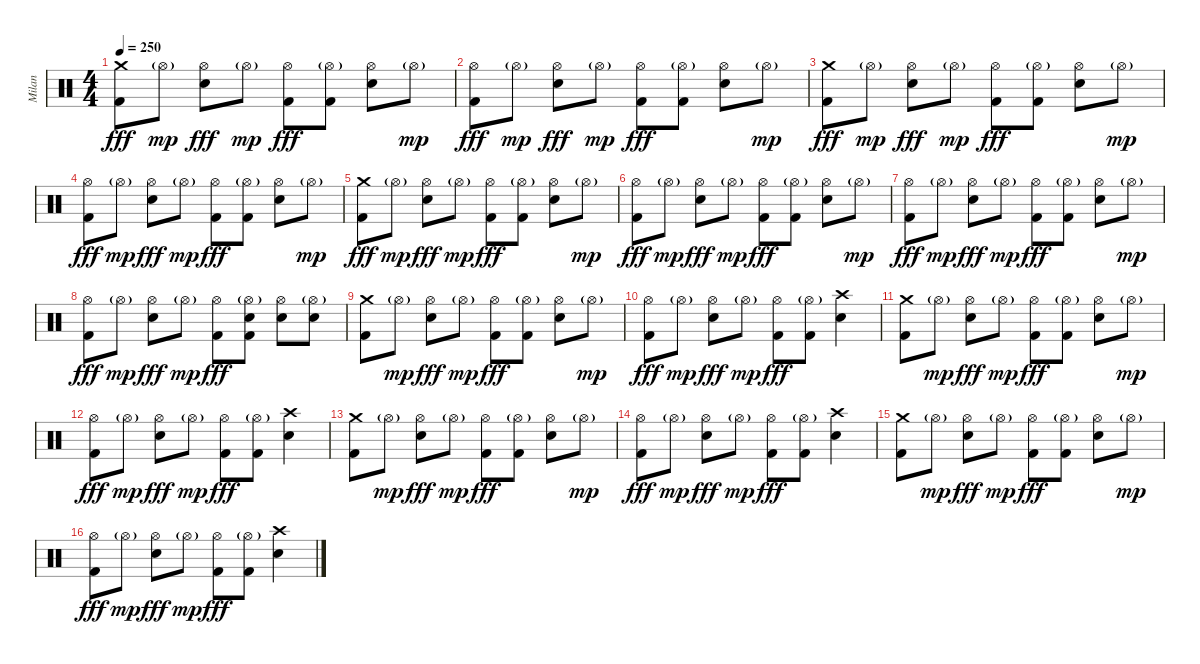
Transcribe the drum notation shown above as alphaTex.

\track ("Milan" "Milan") {instrument percussion}
\staff {score}
\articulation defaults
\ts (4 4)
\tempo 250
\clef neutral
\ks c
("Crash medium (hit)" "Kick (hit) 2").8{dy fff} "Hi-Hat (open)"{g}.8{dy mp} ("Hi-Hat (open)" "Snare (hit) 2").8{dy fff} "Hi-Hat (open)"{g}.8{dy mp} ("Hi-Hat (open)" "Kick (hit) 2").8{dy fff} ("Hi-Hat (open)"{g} "Kick (hit) 2").8 ("Hi-Hat (open)" "Snare (hit) 2").8 "Hi-Hat (open)"{g}.8{dy mp} |
("Hi-Hat (open)" "Kick (hit) 2").8{dy fff} "Hi-Hat (open)"{g}.8{dy mp} ("Hi-Hat (open)" "Snare (hit) 2").8{dy fff} "Hi-Hat (open)"{g}.8{dy mp} ("Hi-Hat (open)" "Kick (hit) 2").8{dy fff} ("Hi-Hat (open)"{g} "Kick (hit) 2").8 ("Hi-Hat (open)" "Snare (hit) 2").8 "Hi-Hat (open)"{g}.8{dy mp} |
("Crash medium (hit)" "Kick (hit) 2").8{dy fff} "Hi-Hat (open)"{g}.8{dy mp} ("Hi-Hat (open)" "Snare (hit) 2").8{dy fff} "Hi-Hat (open)"{g}.8{dy mp} ("Hi-Hat (open)" "Kick (hit) 2").8{dy fff} ("Hi-Hat (open)"{g} "Kick (hit) 2").8 ("Hi-Hat (open)" "Snare (hit) 2").8 "Hi-Hat (open)"{g}.8{dy mp} |
("Hi-Hat (open)" "Kick (hit) 2").8{dy fff} "Hi-Hat (open)"{g}.8{dy mp} ("Hi-Hat (open)" "Snare (hit) 2").8{dy fff} "Hi-Hat (open)"{g}.8{dy mp} ("Hi-Hat (open)" "Kick (hit) 2").8{dy fff} ("Hi-Hat (open)"{g} "Kick (hit) 2").8 ("Hi-Hat (open)" "Snare (hit) 2").8 "Hi-Hat (open)"{g}.8{dy mp} |
("Crash medium (hit)" "Kick (hit) 2").8{dy fff} "Hi-Hat (open)"{g}.8{dy mp} ("Hi-Hat (open)" "Snare (hit) 2").8{dy fff} "Hi-Hat (open)"{g}.8{dy mp} ("Hi-Hat (open)" "Kick (hit) 2").8{dy fff} ("Hi-Hat (open)"{g} "Kick (hit) 2").8 ("Hi-Hat (open)" "Snare (hit) 2").8 "Hi-Hat (open)"{g}.8{dy mp} |
("Hi-Hat (open)" "Kick (hit) 2").8{dy fff} "Hi-Hat (open)"{g}.8{dy mp} ("Hi-Hat (open)" "Snare (hit) 2").8{dy fff} "Hi-Hat (open)"{g}.8{dy mp} ("Hi-Hat (open)" "Kick (hit) 2").8{dy fff} ("Hi-Hat (open)"{g} "Kick (hit) 2").8 ("Hi-Hat (open)" "Snare (hit) 2").8 "Hi-Hat (open)"{g}.8{dy mp} |
("Hi-Hat (open)" "Kick (hit) 2").8{dy fff} "Hi-Hat (open)"{g}.8{dy mp} ("Hi-Hat (open)" "Snare (hit) 2").8{dy fff} "Hi-Hat (open)"{g}.8{dy mp} ("Hi-Hat (open)" "Kick (hit) 2").8{dy fff} ("Hi-Hat (open)"{g} "Kick (hit) 2").8 ("Hi-Hat (open)" "Snare (hit) 2").8 "Hi-Hat (open)"{g}.8{dy mp} |
("Hi-Hat (open)" "Kick (hit) 2").8{dy fff} "Hi-Hat (open)"{g}.8{dy mp} ("Hi-Hat (open)" "Snare (hit) 2").8{dy fff} "Hi-Hat (open)"{g}.8{dy mp} ("Hi-Hat (open)" "Kick (hit) 2").8{dy fff} ("Hi-Hat (open)"{g} "Snare (hit) 2" "Kick (hit) 2").8 ("Hi-Hat (open)" "Snare (hit) 2").8 ("Hi-Hat (open)"{g} "Snare (hit) 2").8 |
("Crash medium (hit)" "Kick (hit) 2").8 "Hi-Hat (open)"{g}.8{dy mp} ("Hi-Hat (open)" "Snare (hit) 2").8{dy fff} "Hi-Hat (open)"{g}.8{dy mp} ("Hi-Hat (open)" "Kick (hit) 2").8{dy fff} ("Hi-Hat (open)"{g} "Kick (hit) 2").8 ("Hi-Hat (open)" "Snare (hit) 2").8 "Hi-Hat (open)"{g}.8{dy mp} |
("Hi-Hat (open)" "Kick (hit) 2").8{dy fff} "Hi-Hat (open)"{g}.8{dy mp} ("Hi-Hat (open)" "Snare (hit) 2").8{dy fff} "Hi-Hat (open)"{g}.8{dy mp} ("Hi-Hat (open)" "Kick (hit) 2").8{dy fff} ("Hi-Hat (open)"{g} "Kick (hit) 2").8 ("Crash high (hit)" "Snare (hit) 2").4 |
("Crash medium (hit)" "Kick (hit) 2").8 "Hi-Hat (open)"{g}.8{dy mp} ("Hi-Hat (open)" "Snare (hit) 2").8{dy fff} "Hi-Hat (open)"{g}.8{dy mp} ("Hi-Hat (open)" "Kick (hit) 2").8{dy fff} ("Hi-Hat (open)"{g} "Kick (hit) 2").8 ("Hi-Hat (open)" "Snare (hit) 2").8 "Hi-Hat (open)"{g}.8{dy mp} |
("Hi-Hat (open)" "Kick (hit) 2").8{dy fff} "Hi-Hat (open)"{g}.8{dy mp} ("Hi-Hat (open)" "Snare (hit) 2").8{dy fff} "Hi-Hat (open)"{g}.8{dy mp} ("Hi-Hat (open)" "Kick (hit) 2").8{dy fff} ("Hi-Hat (open)"{g} "Kick (hit) 2").8 ("Crash high (hit)" "Snare (hit) 2").4 |
("Crash medium (hit)" "Kick (hit) 2").8 "Hi-Hat (open)"{g}.8{dy mp} ("Hi-Hat (open)" "Snare (hit) 2").8{dy fff} "Hi-Hat (open)"{g}.8{dy mp} ("Hi-Hat (open)" "Kick (hit) 2").8{dy fff} ("Hi-Hat (open)"{g} "Kick (hit) 2").8 ("Hi-Hat (open)" "Snare (hit) 2").8 "Hi-Hat (open)"{g}.8{dy mp} |
("Hi-Hat (open)" "Kick (hit) 2").8{dy fff} "Hi-Hat (open)"{g}.8{dy mp} ("Hi-Hat (open)" "Snare (hit) 2").8{dy fff} "Hi-Hat (open)"{g}.8{dy mp} ("Hi-Hat (open)" "Kick (hit) 2").8{dy fff} ("Hi-Hat (open)"{g} "Kick (hit) 2").8 ("Crash high (hit)" "Snare (hit) 2").4 |
("Crash medium (hit)" "Kick (hit) 2").8 "Hi-Hat (open)"{g}.8{dy mp} ("Hi-Hat (open)" "Snare (hit) 2").8{dy fff} "Hi-Hat (open)"{g}.8{dy mp} ("Hi-Hat (open)" "Kick (hit) 2").8{dy fff} ("Hi-Hat (open)"{g} "Kick (hit) 2").8 ("Hi-Hat (open)" "Snare (hit) 2").8 "Hi-Hat (open)"{g}.8{dy mp} |
("Hi-Hat (open)" "Kick (hit) 2").8{dy fff} "Hi-Hat (open)"{g}.8{dy mp} ("Hi-Hat (open)" "Snare (hit) 2").8{dy fff} "Hi-Hat (open)"{g}.8{dy mp} ("Hi-Hat (open)" "Kick (hit) 2").8{dy fff} ("Hi-Hat (open)"{g} "Kick (hit) 2").8 ("Crash high (hit)" "Snare (hit) 2").4
